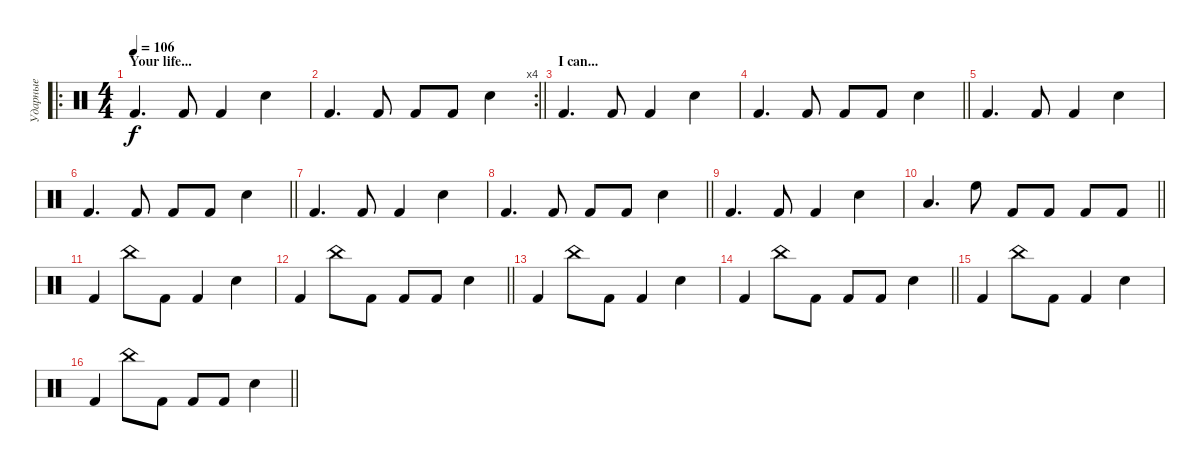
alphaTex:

\track ("Ударные" "Ударные") {instrument percussion}
\staff {score}
\articulation defaults
\ro
\ts (4 4)
\section ("" "Your life...")
\tempo 106
\clef neutral
\ks c "Kick (hit) 2".4{d dy f} "Kick (hit) 2".8 "Kick (hit) 2".4 "Snare (hit) 2".4
|
\rc 4
\barLineRight lightlight "Kick (hit) 2".4{d} "Kick (hit) 2".8 "Kick (hit) 2".8 "Kick (hit) 2".8 "Snare (hit) 2".4
|
\section ("" "I can...")
"Kick (hit) 2".4{d} "Kick (hit) 2".8 "Kick (hit) 2".4 "Snare (hit) 2".4 |
\barLineRight lightlight "Kick (hit) 2".4{d} "Kick (hit) 2".8 "Kick (hit) 2".8 "Kick (hit) 2".8 "Snare (hit) 2".4
|
"Kick (hit) 2".4{d} "Kick (hit) 2".8 "Kick (hit) 2".4 "Snare (hit) 2".4 |
\barLineRight lightlight "Kick (hit) 2".4{d} "Kick (hit) 2".8 "Kick (hit) 2".8 "Kick (hit) 2".8 "Snare (hit) 2".4
|
"Kick (hit) 2".4{d} "Kick (hit) 2".8 "Kick (hit) 2".4 "Snare (hit) 2".4 |
\barLineRight lightlight "Kick (hit) 2".4{d} "Kick (hit) 2".8 "Kick (hit) 2".8 "Kick (hit) 2".8 "Snare (hit) 2".4
|
"Kick (hit) 2".4{d} "Kick (hit) 2".8 "Kick (hit) 2".4 "Snare (hit) 2".4 |
\barLineRight lightlight "Low Tom (hit)".4{d} "High Floor Tom (hit)".8 "Kick (hit) 2".8 "Kick (hit) 2".8 "Kick (hit) 2".8 "Kick (hit) 2".8
|
"Kick (hit) 2".4 "China (hit)".8 "Kick (hit) 2".8 "Kick (hit) 2".4 "Snare (hit) 2".4 |
\barLineRight lightlight "Kick (hit) 2".4 "China (hit)".8 "Kick (hit) 2".8 "Kick (hit) 2".8 "Kick (hit) 2".8 "Snare (hit) 2".4
|
"Kick (hit) 2".4 "China (hit)".8 "Kick (hit) 2".8 "Kick (hit) 2".4 "Snare (hit) 2".4 |
\barLineRight lightlight "Kick (hit) 2".4 "China (hit)".8 "Kick (hit) 2".8 "Kick (hit) 2".8 "Kick (hit) 2".8 "Snare (hit) 2".4
|
"Kick (hit) 2".4 "China (hit)".8 "Kick (hit) 2".8 "Kick (hit) 2".4 "Snare (hit) 2".4 |
\barLineRight lightlight "Kick (hit) 2".4 "China (hit)".8 "Kick (hit) 2".8 "Kick (hit) 2".8 "Kick (hit) 2".8 "Snare (hit) 2".4
